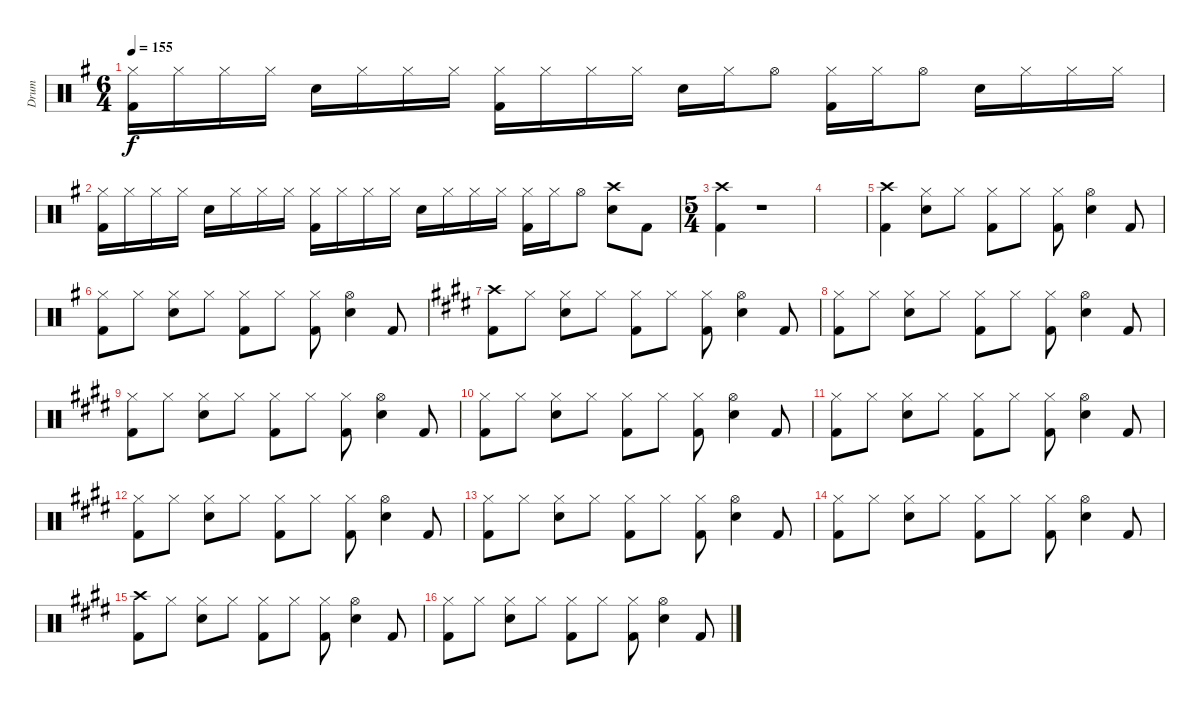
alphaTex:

\track ("Drum" "Drum") {instrument percussion}
\staff {score}
\articulation defaults
\ts (6 4)
\tempo 155
\clef neutral
\ks g
("Hi-Hat (closed)" "Kick (hit) 2").16{dy f} "Hi-Hat (closed)".16 "Hi-Hat (closed)".16 "Hi-Hat (closed)".16 "Snare (hit) 2".16 "Hi-Hat (closed)".16 "Hi-Hat (closed)".16 "Hi-Hat (closed)".16 ("Hi-Hat (closed)" "Kick (hit) 2").16 "Hi-Hat (closed)".16 "Hi-Hat (closed)".16 "Hi-Hat (closed)".16 "Snare (hit) 2".16 "Hi-Hat (closed)".16 "Hi-Hat (open)".8 ("Hi-Hat (closed)" "Kick (hit) 2").16 "Hi-Hat (closed)".16 "Hi-Hat (open)".8 "Snare (hit) 2".16 "Hi-Hat (closed)".16 "Hi-Hat (closed)".16 "Hi-Hat (closed)".16 |
("Hi-Hat (closed)" "Kick (hit) 2").16 "Hi-Hat (closed)".16 "Hi-Hat (closed)".16 "Hi-Hat (closed)".16 "Snare (hit) 2".16 "Hi-Hat (closed)".16 "Hi-Hat (closed)".16 "Hi-Hat (closed)".16 ("Hi-Hat (closed)" "Kick (hit) 2").16 "Hi-Hat (closed)".16 "Hi-Hat (closed)".16 "Hi-Hat (closed)".16 "Snare (hit) 2".16 "Hi-Hat (closed)".16 "Hi-Hat (closed)".16 "Hi-Hat (closed)".16 ("Hi-Hat (closed)" "Kick (hit) 2").16 "Hi-Hat (closed)".16 "Hi-Hat (open)".8 ("Crash high (hit)" "Snare (hit) 2").8 "Kick (hit) 2".8 |
\ts (5 4)
("Crash high (hit)" "Kick (hit) 2").4 r.1 |
|
("Crash high (hit)" "Kick (hit) 2").4 ("Hi-Hat (closed)" "Snare (hit) 2").8 "Hi-Hat (closed)".8 ("Hi-Hat (closed)" "Kick (hit) 2").8 "Hi-Hat (closed)".8 ("Hi-Hat (closed)" "Kick (hit) 2").8 ("Hi-Hat (open)" "Snare (hit) 2").4 "Kick (hit) 2".8 |
("Hi-Hat (closed)" "Kick (hit) 2").8 "Hi-Hat (closed)".8 ("Hi-Hat (closed)" "Snare (hit) 2").8 "Hi-Hat (closed)".8 ("Hi-Hat (closed)" "Kick (hit) 2").8 "Hi-Hat (closed)".8 ("Hi-Hat (closed)" "Kick (hit) 2").8 ("Hi-Hat (open)" "Snare (hit) 2").4 "Kick (hit) 2".8 |
\ks e
("Crash high (hit)" "Kick (hit) 2").8 "Hi-Hat (closed)".8 ("Hi-Hat (closed)" "Snare (hit) 2").8 "Hi-Hat (closed)".8 ("Hi-Hat (closed)" "Kick (hit) 2").8 "Hi-Hat (closed)".8 ("Hi-Hat (closed)" "Kick (hit) 2").8 ("Hi-Hat (open)" "Snare (hit) 2").4 "Kick (hit) 2".8 |
("Hi-Hat (closed)" "Kick (hit) 2").8 "Hi-Hat (closed)".8 ("Hi-Hat (closed)" "Snare (hit) 2").8 "Hi-Hat (closed)".8 ("Hi-Hat (closed)" "Kick (hit) 2").8 "Hi-Hat (closed)".8 ("Hi-Hat (closed)" "Kick (hit) 2").8 ("Hi-Hat (open)" "Snare (hit) 2").4 "Kick (hit) 2".8 |
("Hi-Hat (closed)" "Kick (hit) 2").8 "Hi-Hat (closed)".8 ("Hi-Hat (closed)" "Snare (hit) 2").8 "Hi-Hat (closed)".8 ("Hi-Hat (closed)" "Kick (hit) 2").8 "Hi-Hat (closed)".8 ("Hi-Hat (closed)" "Kick (hit) 2").8 ("Hi-Hat (open)" "Snare (hit) 2").4 "Kick (hit) 2".8 |
("Hi-Hat (closed)" "Kick (hit) 2").8 "Hi-Hat (closed)".8 ("Hi-Hat (closed)" "Snare (hit) 2").8 "Hi-Hat (closed)".8 ("Hi-Hat (closed)" "Kick (hit) 2").8 "Hi-Hat (closed)".8 ("Hi-Hat (closed)" "Kick (hit) 2").8 ("Hi-Hat (open)" "Snare (hit) 2").4 "Kick (hit) 2".8 |
("Hi-Hat (closed)" "Kick (hit) 2").8 "Hi-Hat (closed)".8 ("Hi-Hat (closed)" "Snare (hit) 2").8 "Hi-Hat (closed)".8 ("Hi-Hat (closed)" "Kick (hit) 2").8 "Hi-Hat (closed)".8 ("Hi-Hat (closed)" "Kick (hit) 2").8 ("Hi-Hat (open)" "Snare (hit) 2").4 "Kick (hit) 2".8 |
("Hi-Hat (closed)" "Kick (hit) 2").8 "Hi-Hat (closed)".8 ("Hi-Hat (closed)" "Snare (hit) 2").8 "Hi-Hat (closed)".8 ("Hi-Hat (closed)" "Kick (hit) 2").8 "Hi-Hat (closed)".8 ("Hi-Hat (closed)" "Kick (hit) 2").8 ("Hi-Hat (open)" "Snare (hit) 2").4 "Kick (hit) 2".8 |
("Hi-Hat (closed)" "Kick (hit) 2").8 "Hi-Hat (closed)".8 ("Hi-Hat (closed)" "Snare (hit) 2").8 "Hi-Hat (closed)".8 ("Hi-Hat (closed)" "Kick (hit) 2").8 "Hi-Hat (closed)".8 ("Hi-Hat (closed)" "Kick (hit) 2").8 ("Hi-Hat (open)" "Snare (hit) 2").4 "Kick (hit) 2".8 |
("Hi-Hat (closed)" "Kick (hit) 2").8 "Hi-Hat (closed)".8 ("Hi-Hat (closed)" "Snare (hit) 2").8 "Hi-Hat (closed)".8 ("Hi-Hat (closed)" "Kick (hit) 2").8 "Hi-Hat (closed)".8 ("Hi-Hat (closed)" "Kick (hit) 2").8 ("Hi-Hat (open)" "Snare (hit) 2").4 "Kick (hit) 2".8 |
("Crash high (hit)" "Kick (hit) 2").8 "Hi-Hat (closed)".8 ("Hi-Hat (closed)" "Snare (hit) 2").8 "Hi-Hat (closed)".8 ("Hi-Hat (closed)" "Kick (hit) 2").8 "Hi-Hat (closed)".8 ("Hi-Hat (closed)" "Kick (hit) 2").8 ("Hi-Hat (open)" "Snare (hit) 2").4 "Kick (hit) 2".8 |
("Hi-Hat (closed)" "Kick (hit) 2").8 "Hi-Hat (closed)".8 ("Hi-Hat (closed)" "Snare (hit) 2").8 "Hi-Hat (closed)".8 ("Hi-Hat (closed)" "Kick (hit) 2").8 "Hi-Hat (closed)".8 ("Hi-Hat (closed)" "Kick (hit) 2").8 ("Hi-Hat (open)" "Snare (hit) 2").4 "Kick (hit) 2".8
